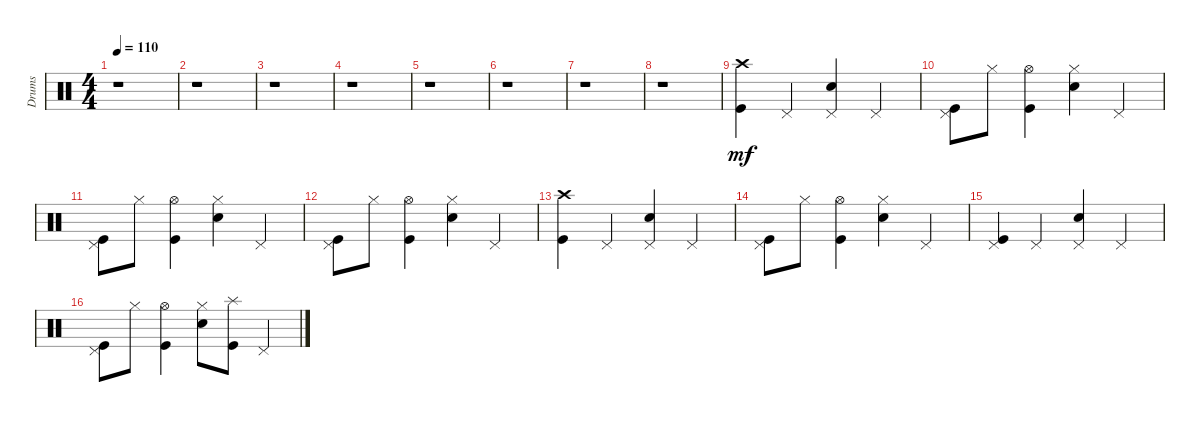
\track ("Drums" "Drums") {instrument percussion}
\staff {score}
\articulation defaults
\ts (4 4)
\tempo 110
\clef neutral
\ks c
r.1{dy mf} |
r.1 |
r.1 |
r.1 |
r.1 |
r.1 |
r.1 |
r.1 |
("Crash high (hit)" "Kick (hit)").4 "Pedal Hi-Hat (hit)".4 ("Pedal Hi-Hat (hit)" "Snare (hit) 2").4 "Pedal Hi-Hat (hit)".4 |
("Pedal Hi-Hat (hit)" "Kick (hit)").8 "Hi-Hat (closed)".8 ("Hi-Hat (open)" "Kick (hit)").4 ("Hi-Hat (closed)" "Snare (hit) 2").4 "Pedal Hi-Hat (hit)".4 |
("Pedal Hi-Hat (hit)" "Kick (hit)").8 "Hi-Hat (closed)".8 ("Hi-Hat (open)" "Kick (hit)").4 ("Hi-Hat (closed)" "Snare (hit) 2").4 "Pedal Hi-Hat (hit)".4 |
("Pedal Hi-Hat (hit)" "Kick (hit)").8 "Hi-Hat (closed)".8 ("Hi-Hat (open)" "Kick (hit)").4 ("Hi-Hat (closed)" "Snare (hit) 2").4 "Pedal Hi-Hat (hit)".4 |
("Crash high (hit)" "Kick (hit)").4 "Pedal Hi-Hat (hit)".4 ("Pedal Hi-Hat (hit)" "Snare (hit) 2").4 "Pedal Hi-Hat (hit)".4 |
("Pedal Hi-Hat (hit)" "Kick (hit)").8 "Hi-Hat (closed)".8 ("Hi-Hat (open)" "Kick (hit)").4 ("Hi-Hat (closed)" "Snare (hit) 2").4 "Pedal Hi-Hat (hit)".4 |
("Pedal Hi-Hat (hit)" "Kick (hit)").4 "Pedal Hi-Hat (hit)".4 ("Pedal Hi-Hat (hit)" "Snare (hit) 2").4 "Pedal Hi-Hat (hit)".4 |
("Pedal Hi-Hat (hit)" "Kick (hit)").8 "Hi-Hat (closed)".8 ("Hi-Hat (open)" "Kick (hit)").4 ("Hi-Hat (closed)" "Snare (hit) 2").8 ("Splash (hit)" "Kick (hit)").8 "Pedal Hi-Hat (hit)".4
